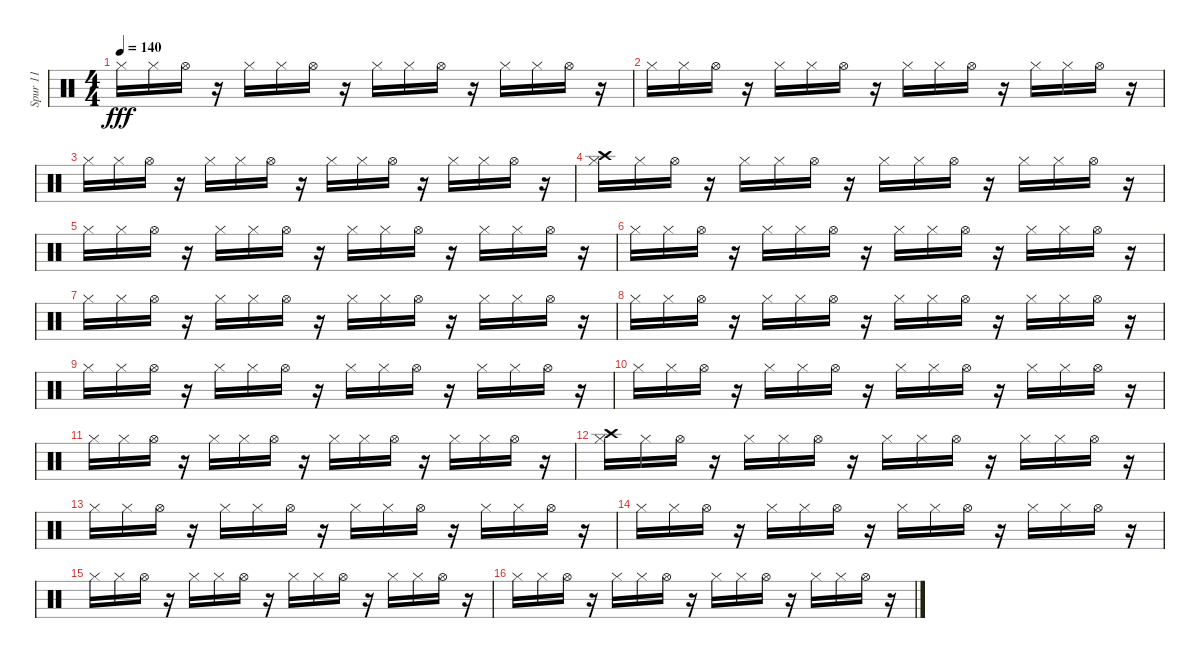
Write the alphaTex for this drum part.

\track ("Spur 11" "Spur 11") {instrument percussion}
\staff {score}
\articulation defaults
\ts (4 4)
\tempo 140
\clef neutral
\ks c "Hi-Hat (closed)".16{dy fff} "Hi-Hat (closed)".16 "Hi-Hat (open)".16
r.16 "Hi-Hat (closed)".16 "Hi-Hat (closed)".16 "Hi-Hat (open)".16 r.16 "Hi-Hat (closed)".16 "Hi-Hat (closed)".16 "Hi-Hat (open)".16 r.16 "Hi-Hat (closed)".16 "Hi-Hat (closed)".16 "Hi-Hat (open)".16 r.16 |
"Hi-Hat (closed)".16 "Hi-Hat (closed)".16 "Hi-Hat (open)".16 r.16 "Hi-Hat (closed)".16 "Hi-Hat (closed)".16 "Hi-Hat (open)".16 r.16 "Hi-Hat (closed)".16 "Hi-Hat (closed)".16 "Hi-Hat (open)".16 r.16 "Hi-Hat (closed)".16 "Hi-Hat (closed)".16 "Hi-Hat (open)".16 r.16 |
"Hi-Hat (closed)".16 "Hi-Hat (closed)".16 "Hi-Hat (open)".16 r.16 "Hi-Hat (closed)".16 "Hi-Hat (closed)".16 "Hi-Hat (open)".16 r.16 "Hi-Hat (closed)".16 "Hi-Hat (closed)".16 "Hi-Hat (open)".16 r.16 "Hi-Hat (closed)".16 "Hi-Hat (closed)".16 "Hi-Hat (open)".16 r.16 |
("Crash high (hit)" "Hi-Hat (closed)").16 "Hi-Hat (closed)".16 "Hi-Hat (open)".16 r.16 "Hi-Hat (closed)".16 "Hi-Hat (closed)".16 "Hi-Hat (open)".16 r.16 "Hi-Hat (closed)".16 "Hi-Hat (closed)".16 "Hi-Hat (open)".16 r.16 "Hi-Hat (closed)".16 "Hi-Hat (closed)".16 "Hi-Hat (open)".16 r.16 |
"Hi-Hat (closed)".16 "Hi-Hat (closed)".16 "Hi-Hat (open)".16 r.16 "Hi-Hat (closed)".16 "Hi-Hat (closed)".16 "Hi-Hat (open)".16 r.16 "Hi-Hat (closed)".16 "Hi-Hat (closed)".16 "Hi-Hat (open)".16 r.16 "Hi-Hat (closed)".16 "Hi-Hat (closed)".16 "Hi-Hat (open)".16 r.16 |
"Hi-Hat (closed)".16 "Hi-Hat (closed)".16 "Hi-Hat (open)".16 r.16 "Hi-Hat (closed)".16 "Hi-Hat (closed)".16 "Hi-Hat (open)".16 r.16 "Hi-Hat (closed)".16 "Hi-Hat (closed)".16 "Hi-Hat (open)".16 r.16 "Hi-Hat (closed)".16 "Hi-Hat (closed)".16 "Hi-Hat (open)".16 r.16 |
"Hi-Hat (closed)".16 "Hi-Hat (closed)".16 "Hi-Hat (open)".16 r.16 "Hi-Hat (closed)".16 "Hi-Hat (closed)".16 "Hi-Hat (open)".16 r.16 "Hi-Hat (closed)".16 "Hi-Hat (closed)".16 "Hi-Hat (open)".16 r.16 "Hi-Hat (closed)".16 "Hi-Hat (closed)".16 "Hi-Hat (open)".16 r.16 |
"Hi-Hat (closed)".16 "Hi-Hat (closed)".16 "Hi-Hat (open)".16 r.16 "Hi-Hat (closed)".16 "Hi-Hat (closed)".16 "Hi-Hat (open)".16 r.16 "Hi-Hat (closed)".16 "Hi-Hat (closed)".16 "Hi-Hat (open)".16 r.16 "Hi-Hat (closed)".16 "Hi-Hat (closed)".16 "Hi-Hat (open)".16 r.16 |
"Hi-Hat (closed)".16 "Hi-Hat (closed)".16 "Hi-Hat (open)".16 r.16 "Hi-Hat (closed)".16 "Hi-Hat (closed)".16 "Hi-Hat (open)".16 r.16 "Hi-Hat (closed)".16 "Hi-Hat (closed)".16 "Hi-Hat (open)".16 r.16 "Hi-Hat (closed)".16 "Hi-Hat (closed)".16 "Hi-Hat (open)".16 r.16 |
"Hi-Hat (closed)".16 "Hi-Hat (closed)".16 "Hi-Hat (open)".16 r.16 "Hi-Hat (closed)".16 "Hi-Hat (closed)".16 "Hi-Hat (open)".16 r.16 "Hi-Hat (closed)".16 "Hi-Hat (closed)".16 "Hi-Hat (open)".16 r.16 "Hi-Hat (closed)".16 "Hi-Hat (closed)".16 "Hi-Hat (open)".16 r.16 |
"Hi-Hat (closed)".16 "Hi-Hat (closed)".16 "Hi-Hat (open)".16 r.16 "Hi-Hat (closed)".16 "Hi-Hat (closed)".16 "Hi-Hat (open)".16 r.16 "Hi-Hat (closed)".16 "Hi-Hat (closed)".16 "Hi-Hat (open)".16 r.16 "Hi-Hat (closed)".16 "Hi-Hat (closed)".16 "Hi-Hat (open)".16 r.16 |
("Crash high (hit)" "Hi-Hat (closed)").16 "Hi-Hat (closed)".16 "Hi-Hat (open)".16 r.16 "Hi-Hat (closed)".16 "Hi-Hat (closed)".16 "Hi-Hat (open)".16 r.16 "Hi-Hat (closed)".16 "Hi-Hat (closed)".16 "Hi-Hat (open)".16 r.16 "Hi-Hat (closed)".16 "Hi-Hat (closed)".16 "Hi-Hat (open)".16 r.16 |
"Hi-Hat (closed)".16 "Hi-Hat (closed)".16 "Hi-Hat (open)".16 r.16 "Hi-Hat (closed)".16 "Hi-Hat (closed)".16 "Hi-Hat (open)".16 r.16 "Hi-Hat (closed)".16 "Hi-Hat (closed)".16 "Hi-Hat (open)".16 r.16 "Hi-Hat (closed)".16 "Hi-Hat (closed)".16 "Hi-Hat (open)".16 r.16 |
"Hi-Hat (closed)".16 "Hi-Hat (closed)".16 "Hi-Hat (open)".16 r.16 "Hi-Hat (closed)".16 "Hi-Hat (closed)".16 "Hi-Hat (open)".16 r.16 "Hi-Hat (closed)".16 "Hi-Hat (closed)".16 "Hi-Hat (open)".16 r.16 "Hi-Hat (closed)".16 "Hi-Hat (closed)".16 "Hi-Hat (open)".16 r.16 |
"Hi-Hat (closed)".16 "Hi-Hat (closed)".16 "Hi-Hat (open)".16 r.16 "Hi-Hat (closed)".16 "Hi-Hat (closed)".16 "Hi-Hat (open)".16 r.16 "Hi-Hat (closed)".16 "Hi-Hat (closed)".16 "Hi-Hat (open)".16 r.16 "Hi-Hat (closed)".16 "Hi-Hat (closed)".16 "Hi-Hat (open)".16 r.16 |
"Hi-Hat (closed)".16 "Hi-Hat (closed)".16 "Hi-Hat (open)".16 r.16 "Hi-Hat (closed)".16 "Hi-Hat (closed)".16 "Hi-Hat (open)".16 r.16 "Hi-Hat (closed)".16 "Hi-Hat (closed)".16 "Hi-Hat (open)".16 r.16 "Hi-Hat (closed)".16 "Hi-Hat (closed)".16 "Hi-Hat (open)".16 r.16
